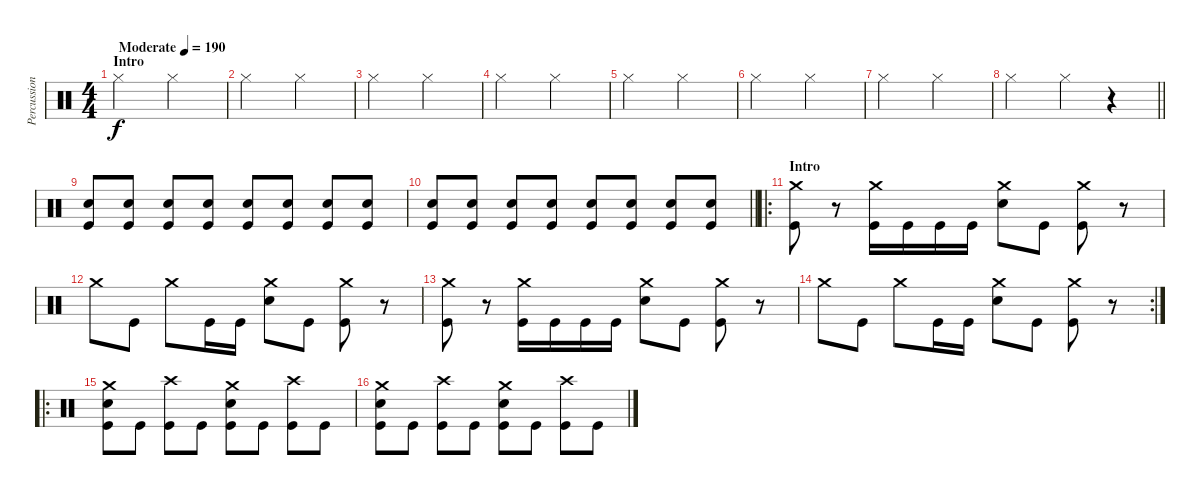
\track ("Percussion" "Percussion") {instrument percussion}
\staff {score}
\articulation defaults
\ts (4 4)
\section ("" "Intro")
\tempo (190 "Moderate")
\clef neutral
\ks c "Hi-Hat (closed)".2{dy f} "Hi-Hat (closed)".2
|
"Hi-Hat (closed)".2 "Hi-Hat (closed)".2 |
"Hi-Hat (closed)".2 "Hi-Hat (closed)".2 |
"Hi-Hat (closed)".2 "Hi-Hat (closed)".2 |
"Hi-Hat (closed)".2 "Hi-Hat (closed)".2 |
"Hi-Hat (closed)".2 "Hi-Hat (closed)".2 |
"Hi-Hat (closed)".2 "Hi-Hat (closed)".2 |
\barLineRight lightlight "Hi-Hat (closed)".2 "Hi-Hat (closed)".4
r.4{volume 5} |
("Snare (hit) 2" "Kick (hit)").8{volume 13} ("Snare (hit) 2" "Kick (hit)").8 ("Snare (hit) 2" "Kick (hit)").8 ("Snare (hit) 2" "Kick (hit)").8 ("Snare (hit) 2" "Kick (hit)").8 ("Snare (hit) 2" "Kick (hit)").8 ("Snare (hit) 2" "Kick (hit)").8 ("Snare (hit) 2" "Kick (hit)").8 |
\barLineRight lightlight
("Snare (hit) 2" "Kick (hit)").8 ("Snare (hit) 2" "Kick (hit)").8 ("Snare (hit) 2" "Kick (hit)").8 ("Snare (hit) 2" "Kick (hit)").8 ("Snare (hit) 2" "Kick (hit)").8 ("Snare (hit) 2" "Kick (hit)").8 ("Snare (hit) 2" "Kick (hit)").8 ("Snare (hit) 2" "Kick (hit)").8 |
\ro
\section ("" "Intro")
("Crash medium (hit)" "Kick (hit)").8 r.8 ("Crash medium (hit)" "Kick (hit)").16 "Kick (hit)".16 "Kick (hit)".16 "Kick (hit)".16 ("Crash medium (hit)" "Snare (hit) 2").8 "Kick (hit)".8 ("Crash medium (hit)" "Kick (hit)").8 r.8 |
"Crash medium (hit)".8 "Kick (hit)".8 "Crash medium (hit)".8 "Kick (hit)".16 "Kick (hit)".16 ("Crash medium (hit)" "Snare (hit) 2").8 "Kick (hit)".8 ("Crash medium (hit)" "Kick (hit)").8 r.8 |
("Crash medium (hit)" "Kick (hit)").8 r.8 ("Crash medium (hit)" "Kick (hit)").16 "Kick (hit)".16 "Kick (hit)".16 "Kick (hit)".16 ("Crash medium (hit)" "Snare (hit) 2").8 "Kick (hit)".8 ("Crash medium (hit)" "Kick (hit)").8 r.8 |
\rc 2 "Crash medium (hit)".8 "Kick (hit)".8 "Crash medium (hit)".8 "Kick (hit)".16 "Kick (hit)".16
("Crash medium (hit)" "Snare (hit) 2").8 "Kick (hit)".8 ("Crash medium (hit)" "Kick (hit)").8 r.8 |
\ro
("Crash medium (hit)" "Snare (hit) 2" "Kick (hit)").8 "Kick (hit)".8 ("Crash high (hit)" "Kick (hit)").8 "Kick (hit)".8 ("Crash medium (hit)" "Snare (hit) 2" "Kick (hit)").8 "Kick (hit)".8 ("Crash high (hit)" "Kick (hit)").8 "Kick (hit)".8 |
("Crash medium (hit)" "Snare (hit) 2" "Kick (hit)").8 "Kick (hit)".8 ("Crash high (hit)" "Kick (hit)").8 "Kick (hit)".8 ("Crash medium (hit)" "Snare (hit) 2" "Kick (hit)").8 "Kick (hit)".8 ("Crash high (hit)" "Kick (hit)").8 "Kick (hit)".8
